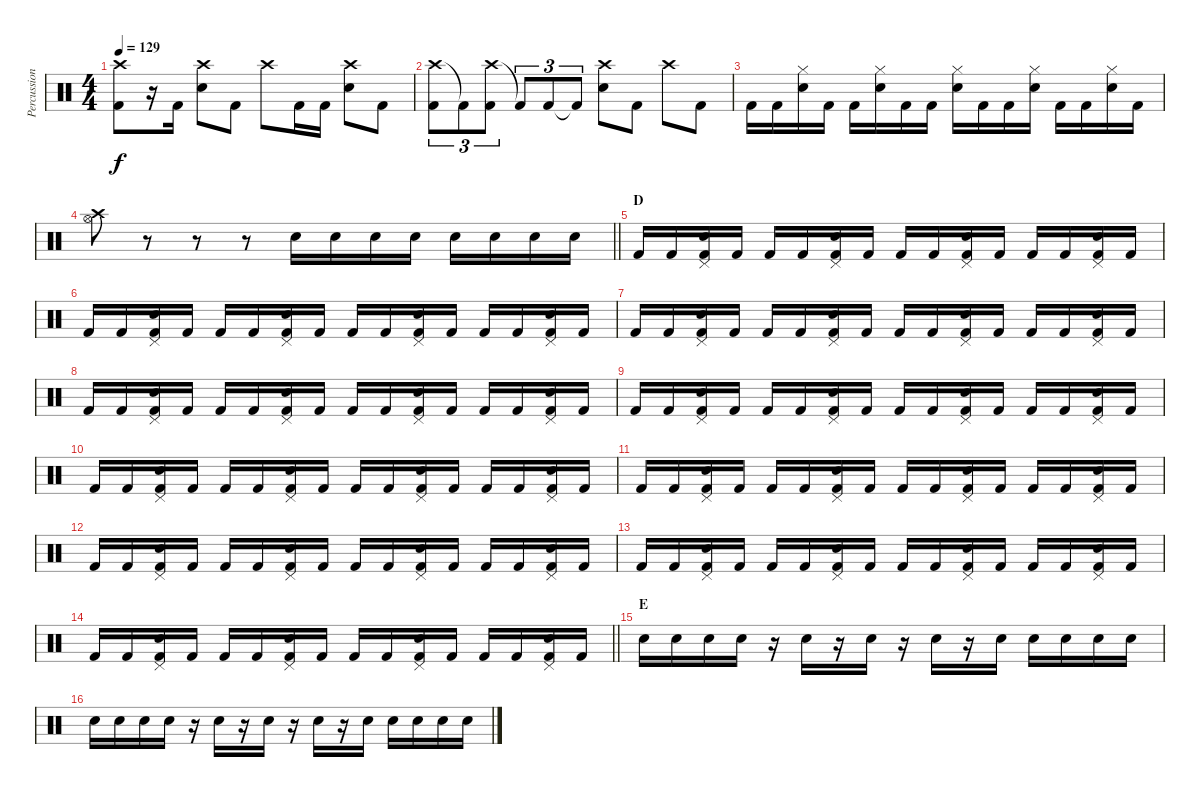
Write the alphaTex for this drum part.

\track ("Percussion" "Percussion") {instrument percussion}
\staff {score}
\articulation defaults
\ts (4 4)
\tempo 129
\clef neutral
\ks c
("Crash high (hit)" "Kick (hit) 2").8{dy f} r.16 "Kick (hit) 2".16 ("Crash high (hit)" "Snare (hit) 2").8 "Kick (hit) 2".8 "Crash high (hit)".8 "Kick (hit) 2".16 "Kick (hit) 2".16 ("Crash high (hit)" "Snare (hit) 2").8 "Kick (hit) 2".8 |
("Crash high (hit)" "Kick (hit) 2").8{tu (3 2)} "Kick (hit) 2"{t}.8{tu (3 2)} ("Crash high (hit)" "Kick (hit) 2").8{tu (3 2)} "Kick (hit) 2"{t}.8{tu (3 2)} "Kick (hit) 2".8{tu (3 2)} "Kick (hit) 2"{t}.8{tu (3 2)} ("Crash high (hit)" "Snare (hit) 2").8 "Kick (hit) 2".8 "Crash high (hit)".8 "Kick (hit) 2".8 |
"Kick (hit) 2".16 "Kick (hit) 2".16 ("Hi-Hat (closed)" "Snare (hit) 2").16 "Kick (hit) 2".16 "Kick (hit) 2".16 ("Hi-Hat (closed)" "Snare (hit) 2").16 "Kick (hit) 2".16 "Kick (hit) 2".16 ("Hi-Hat (closed)" "Snare (hit) 2").16 "Kick (hit) 2".16 "Kick (hit) 2".16 ("Hi-Hat (closed)" "Snare (hit) 2").16 "Kick (hit) 2".16 "Kick (hit) 2".16 ("Hi-Hat (closed)" "Snare (hit) 2").16 "Kick (hit) 2".16 |
\barLineRight lightlight
("Crash high (hit)" "Hi-Hat (open)").8 r.8 r.8 r.8 "Snare (hit) 2".16 "Snare (hit) 2".16 "Snare (hit) 2".16 "Snare (hit) 2".16 "Snare (hit) 2".16 "Snare (hit) 2".16 "Snare (hit) 2".16 "Snare (hit) 2".16 |
\section ("" "D")
"Kick (hit) 2".16 "Kick (hit) 2".16 ("Pedal Hi-Hat (hit)" "Snare (hit) 2" "Kick (hit) 2").16 "Kick (hit) 2".16 "Kick (hit) 2".16 "Kick (hit) 2".16 ("Pedal Hi-Hat (hit)" "Snare (hit) 2" "Kick (hit) 2").16 "Kick (hit) 2".16 "Kick (hit) 2".16 "Kick (hit) 2".16 ("Pedal Hi-Hat (hit)" "Snare (hit) 2" "Kick (hit) 2").16 "Kick (hit) 2".16 "Kick (hit) 2".16 "Kick (hit) 2".16 ("Pedal Hi-Hat (hit)" "Snare (hit) 2" "Kick (hit) 2").16 "Kick (hit) 2".16 |
"Kick (hit) 2".16 "Kick (hit) 2".16 ("Pedal Hi-Hat (hit)" "Snare (hit) 2" "Kick (hit) 2").16 "Kick (hit) 2".16 "Kick (hit) 2".16 "Kick (hit) 2".16 ("Pedal Hi-Hat (hit)" "Snare (hit) 2" "Kick (hit) 2").16 "Kick (hit) 2".16 "Kick (hit) 2".16 "Kick (hit) 2".16 ("Pedal Hi-Hat (hit)" "Snare (hit) 2" "Kick (hit) 2").16 "Kick (hit) 2".16 "Kick (hit) 2".16 "Kick (hit) 2".16 ("Pedal Hi-Hat (hit)" "Snare (hit) 2" "Kick (hit) 2").16 "Kick (hit) 2".16 |
"Kick (hit) 2".16 "Kick (hit) 2".16 ("Pedal Hi-Hat (hit)" "Snare (hit) 2" "Kick (hit) 2").16 "Kick (hit) 2".16 "Kick (hit) 2".16 "Kick (hit) 2".16 ("Pedal Hi-Hat (hit)" "Snare (hit) 2" "Kick (hit) 2").16 "Kick (hit) 2".16 "Kick (hit) 2".16 "Kick (hit) 2".16 ("Pedal Hi-Hat (hit)" "Snare (hit) 2" "Kick (hit) 2").16 "Kick (hit) 2".16 "Kick (hit) 2".16 "Kick (hit) 2".16 ("Pedal Hi-Hat (hit)" "Snare (hit) 2" "Kick (hit) 2").16 "Kick (hit) 2".16 |
"Kick (hit) 2".16 "Kick (hit) 2".16 ("Pedal Hi-Hat (hit)" "Snare (hit) 2" "Kick (hit) 2").16 "Kick (hit) 2".16 "Kick (hit) 2".16 "Kick (hit) 2".16 ("Pedal Hi-Hat (hit)" "Snare (hit) 2" "Kick (hit) 2").16 "Kick (hit) 2".16 "Kick (hit) 2".16 "Kick (hit) 2".16 ("Pedal Hi-Hat (hit)" "Snare (hit) 2" "Kick (hit) 2").16 "Kick (hit) 2".16 "Kick (hit) 2".16 "Kick (hit) 2".16 ("Pedal Hi-Hat (hit)" "Snare (hit) 2" "Kick (hit) 2").16 "Kick (hit) 2".16 |
"Kick (hit) 2".16 "Kick (hit) 2".16 ("Pedal Hi-Hat (hit)" "Snare (hit) 2" "Kick (hit) 2").16 "Kick (hit) 2".16 "Kick (hit) 2".16 "Kick (hit) 2".16 ("Pedal Hi-Hat (hit)" "Snare (hit) 2" "Kick (hit) 2").16 "Kick (hit) 2".16 "Kick (hit) 2".16 "Kick (hit) 2".16 ("Pedal Hi-Hat (hit)" "Snare (hit) 2" "Kick (hit) 2").16 "Kick (hit) 2".16 "Kick (hit) 2".16 "Kick (hit) 2".16 ("Pedal Hi-Hat (hit)" "Snare (hit) 2" "Kick (hit) 2").16 "Kick (hit) 2".16 |
"Kick (hit) 2".16 "Kick (hit) 2".16 ("Pedal Hi-Hat (hit)" "Snare (hit) 2" "Kick (hit) 2").16 "Kick (hit) 2".16 "Kick (hit) 2".16 "Kick (hit) 2".16 ("Pedal Hi-Hat (hit)" "Snare (hit) 2" "Kick (hit) 2").16 "Kick (hit) 2".16 "Kick (hit) 2".16 "Kick (hit) 2".16 ("Pedal Hi-Hat (hit)" "Snare (hit) 2" "Kick (hit) 2").16 "Kick (hit) 2".16 "Kick (hit) 2".16 "Kick (hit) 2".16 ("Pedal Hi-Hat (hit)" "Snare (hit) 2" "Kick (hit) 2").16 "Kick (hit) 2".16 |
"Kick (hit) 2".16 "Kick (hit) 2".16 ("Pedal Hi-Hat (hit)" "Snare (hit) 2" "Kick (hit) 2").16 "Kick (hit) 2".16 "Kick (hit) 2".16 "Kick (hit) 2".16 ("Pedal Hi-Hat (hit)" "Snare (hit) 2" "Kick (hit) 2").16 "Kick (hit) 2".16 "Kick (hit) 2".16 "Kick (hit) 2".16 ("Pedal Hi-Hat (hit)" "Snare (hit) 2" "Kick (hit) 2").16 "Kick (hit) 2".16 "Kick (hit) 2".16 "Kick (hit) 2".16 ("Pedal Hi-Hat (hit)" "Snare (hit) 2" "Kick (hit) 2").16 "Kick (hit) 2".16 |
"Kick (hit) 2".16 "Kick (hit) 2".16 ("Pedal Hi-Hat (hit)" "Snare (hit) 2" "Kick (hit) 2").16 "Kick (hit) 2".16 "Kick (hit) 2".16 "Kick (hit) 2".16 ("Pedal Hi-Hat (hit)" "Snare (hit) 2" "Kick (hit) 2").16 "Kick (hit) 2".16 "Kick (hit) 2".16 "Kick (hit) 2".16 ("Pedal Hi-Hat (hit)" "Snare (hit) 2" "Kick (hit) 2").16 "Kick (hit) 2".16 "Kick (hit) 2".16 "Kick (hit) 2".16 ("Pedal Hi-Hat (hit)" "Snare (hit) 2" "Kick (hit) 2").16 "Kick (hit) 2".16 |
"Kick (hit) 2".16 "Kick (hit) 2".16 ("Pedal Hi-Hat (hit)" "Snare (hit) 2" "Kick (hit) 2").16 "Kick (hit) 2".16 "Kick (hit) 2".16 "Kick (hit) 2".16 ("Pedal Hi-Hat (hit)" "Snare (hit) 2" "Kick (hit) 2").16 "Kick (hit) 2".16 "Kick (hit) 2".16 "Kick (hit) 2".16 ("Pedal Hi-Hat (hit)" "Snare (hit) 2" "Kick (hit) 2").16 "Kick (hit) 2".16 "Kick (hit) 2".16 "Kick (hit) 2".16 ("Pedal Hi-Hat (hit)" "Snare (hit) 2" "Kick (hit) 2").16 "Kick (hit) 2".16 |
\barLineRight lightlight "Kick (hit) 2".16 "Kick (hit) 2".16
("Pedal Hi-Hat (hit)" "Snare (hit) 2" "Kick (hit) 2").16 "Kick (hit) 2".16 "Kick (hit) 2".16 "Kick (hit) 2".16 ("Pedal Hi-Hat (hit)" "Snare (hit) 2" "Kick (hit) 2").16 "Kick (hit) 2".16 "Kick (hit) 2".16 "Kick (hit) 2".16 ("Pedal Hi-Hat (hit)" "Snare (hit) 2" "Kick (hit) 2").16 "Kick (hit) 2".16 "Kick (hit) 2".16 "Kick (hit) 2".16 ("Pedal Hi-Hat (hit)" "Snare (hit) 2" "Kick (hit) 2").16 "Kick (hit) 2".16 |
\section ("" "E")
"Snare (hit) 2".16 "Snare (hit) 2".16 "Snare (hit) 2".16 "Snare (hit) 2".16 r.16 "Snare (hit) 2".16 r.16 "Snare (hit) 2".16 r.16 "Snare (hit) 2".16 r.16 "Snare (hit) 2".16 "Snare (hit) 2".16 "Snare (hit) 2".16 "Snare (hit) 2".16 "Snare (hit) 2".16 |
"Snare (hit) 2".16 "Snare (hit) 2".16 "Snare (hit) 2".16 "Snare (hit) 2".16 r.16 "Snare (hit) 2".16 r.16 "Snare (hit) 2".16 r.16 "Snare (hit) 2".16 r.16 "Snare (hit) 2".16 "Snare (hit) 2".16 "Snare (hit) 2".16 "Snare (hit) 2".16 "Snare (hit) 2".16
